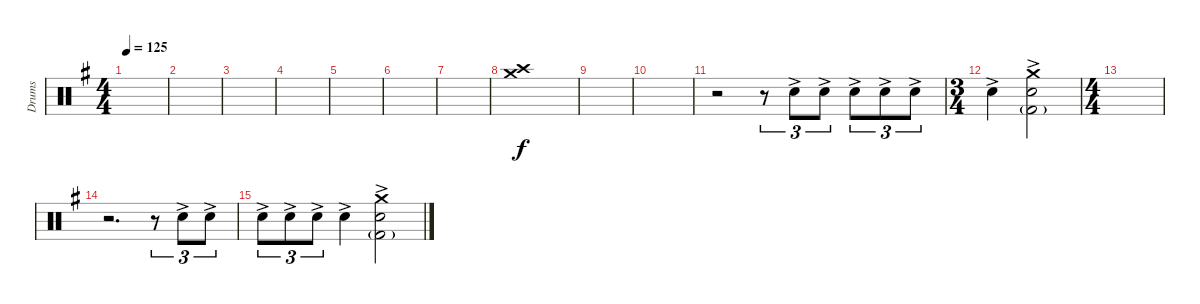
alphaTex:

\defaultSystemsLayout 4
\bracketExtendMode groupsimilarinstruments
\otherSystemsTrackNameOrientation horizontal
\track ("Drumkit" "Drums") {instrument percussion}
\staff {score}
\articulation defaults
\ts (4 4)
\tempo 125
\clef neutral
\scale
0.333333
\ks g
|
\scale
0.333333 |
\scale
0.333333 |
\scale
0.333333 |
\scale
0.333333 |
\scale
0.333333 |
\scale
0.333333 |
\scale
0.333333 ("Crash medium (hit)"{acc forcenatural} "Crash high (hit)"{acc forcenatural}).1{beam Down} |
\scale
0.333333 |
\scale
0.262911 |
\scale
0.262911 r.2{beam Down} r.8{tu (3 2) beam Down} "Snare (hit) 2"{ac acc forcenatural}.8{tu (3 2) beam Down} "Snare (hit) 2"{ac acc forcenatural}.8{tu (3 2) beam Down} "Snare (hit) 2"{ac acc forcenatural}.8{tu (3 2) beam Down} "Snare (hit) 2"{ac acc forcenatural}.8{tu (3 2) beam Down} "Snare (hit) 2"{ac acc forcenatural}.8{tu (3 2) beam Down} |
\ts (3 4)
\scale
0.474178 "Snare (hit) 2"{ac acc forcenatural}.4{beam Down} ("Snare (hit) 2"{acc forcenatural} "Kick (hit) 2"{g acc forcenatural} "Crash medium (hit)"{ac acc forcenatural}).2{beam Down} |
\ts (4 4)
\scale
0.474178 |
\scale
0.262911 r.2{d beam Down} r.8{tu (3 2) beam Down} "Snare (hit) 2"{ac acc forcenatural}.8{tu (3 2) beam Down} "Snare (hit) 2"{ac acc forcenatural}.8{tu (3 2) beam Down} |
\scale
0.262911 "Snare (hit) 2"{ac acc forcenatural}.8{tu (3 2) beam Down} "Snare (hit) 2"{ac acc forcenatural}.8{tu (3 2) beam Down} "Snare (hit) 2"{ac acc forcenatural}.8{tu (3 2) beam Down} "Snare (hit) 2"{ac acc forcenatural}.4{beam Down} ("Snare (hit) 2"{acc forcenatural} "Kick (hit) 2"{g acc forcenatural} "Crash medium (hit)"{ac acc forcenatural}).2{beam Down} |
\scale
0.333333
